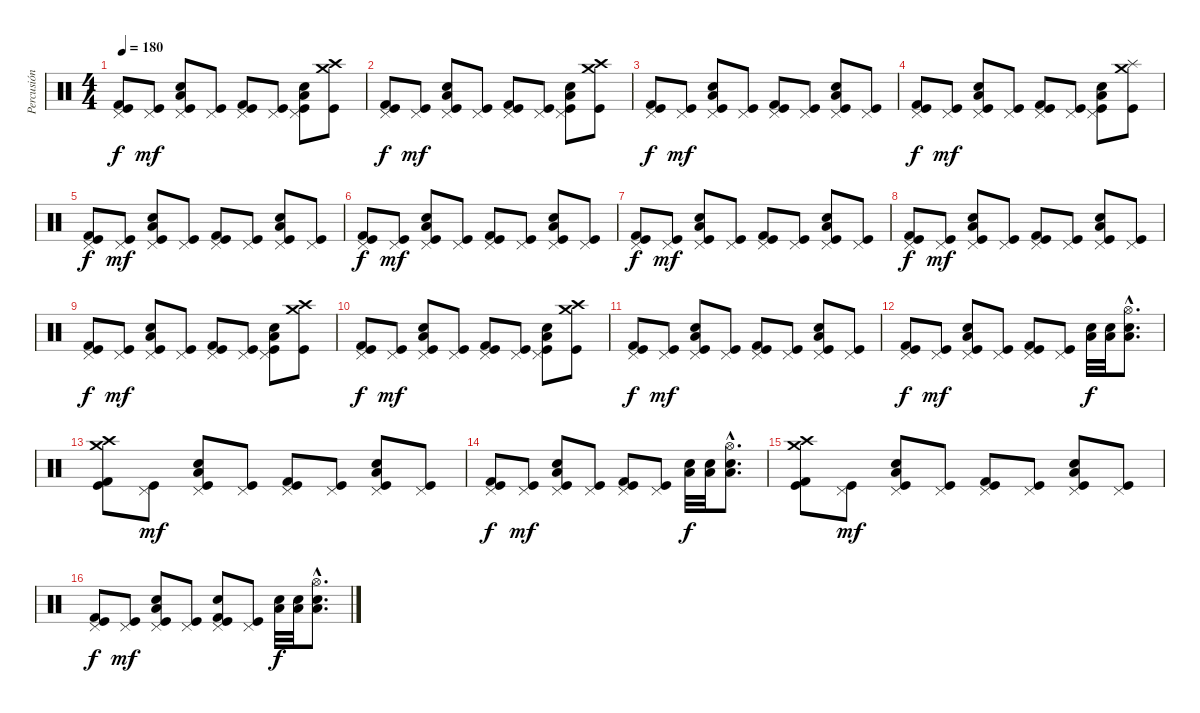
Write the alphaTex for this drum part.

\track ("Percusión" "Percusión") {instrument percussion}
\staff {score}
\articulation defaults
\ts (4 4)
\tempo 180
\clef neutral
\ks c
("Pedal Hi-Hat (hit)" "Kick (hit) 2" "Kick (hit)").8{dy f} ("Pedal Hi-Hat (hit)" "Kick (hit)").8{dy mf} ("Pedal Hi-Hat (hit)" "Electric Snare (hit)" "Low Tom (hit)" "Kick (hit)").8 ("Pedal Hi-Hat (hit)" "Kick (hit)").8 ("Pedal Hi-Hat (hit)" "Kick (hit) 2" "Kick (hit)").8 ("Pedal Hi-Hat (hit)" "Kick (hit)").8 ("Pedal Hi-Hat (hit)" "Electric Snare (hit)" "Low Tom (hit)" "Kick (hit)").8 ("Crash high (hit)" "Crash medium (hit)" "Kick (hit)").8 |
("Pedal Hi-Hat (hit)" "Kick (hit) 2" "Kick (hit)").8{dy f} ("Pedal Hi-Hat (hit)" "Kick (hit)").8{dy mf} ("Pedal Hi-Hat (hit)" "Electric Snare (hit)" "Low Tom (hit)" "Kick (hit)").8 ("Pedal Hi-Hat (hit)" "Kick (hit)").8 ("Pedal Hi-Hat (hit)" "Kick (hit) 2" "Kick (hit)").8 ("Pedal Hi-Hat (hit)" "Kick (hit)").8 ("Pedal Hi-Hat (hit)" "Electric Snare (hit)" "Low Tom (hit)" "Kick (hit)").8 ("Crash high (hit)" "Crash medium (hit)" "Kick (hit)").8 |
("Pedal Hi-Hat (hit)" "Kick (hit) 2" "Kick (hit)").8{dy f} ("Pedal Hi-Hat (hit)" "Kick (hit)").8{dy mf} ("Pedal Hi-Hat (hit)" "Electric Snare (hit)" "Low Tom (hit)" "Kick (hit)").8 ("Pedal Hi-Hat (hit)" "Kick (hit)").8 ("Pedal Hi-Hat (hit)" "Kick (hit) 2" "Kick (hit)").8 ("Pedal Hi-Hat (hit)" "Kick (hit)").8 ("Pedal Hi-Hat (hit)" "Electric Snare (hit)" "Low Tom (hit)" "Kick (hit)").8 ("Pedal Hi-Hat (hit)" "Kick (hit)").8 |
("Pedal Hi-Hat (hit)" "Kick (hit) 2" "Kick (hit)").8{dy f} ("Pedal Hi-Hat (hit)" "Kick (hit)").8{dy mf} ("Pedal Hi-Hat (hit)" "Electric Snare (hit)" "Low Tom (hit)" "Kick (hit)").8 ("Pedal Hi-Hat (hit)" "Kick (hit)").8 ("Pedal Hi-Hat (hit)" "Kick (hit) 2" "Kick (hit)").8 ("Pedal Hi-Hat (hit)" "Kick (hit)").8 ("Pedal Hi-Hat (hit)" "Electric Snare (hit)" "Low Tom (hit)" "Kick (hit)").8 ("Splash (hit)" "Crash medium (hit)" "Kick (hit)").8 |
("Pedal Hi-Hat (hit)" "Kick (hit) 2" "Kick (hit)").8{dy f} ("Pedal Hi-Hat (hit)" "Kick (hit)").8{dy mf} ("Pedal Hi-Hat (hit)" "Electric Snare (hit)" "Low Tom (hit)" "Kick (hit)").8 ("Pedal Hi-Hat (hit)" "Kick (hit)").8 ("Pedal Hi-Hat (hit)" "Kick (hit) 2" "Kick (hit)").8 ("Pedal Hi-Hat (hit)" "Kick (hit)").8 ("Pedal Hi-Hat (hit)" "Electric Snare (hit)" "Low Tom (hit)" "Kick (hit)").8 ("Pedal Hi-Hat (hit)" "Kick (hit)").8 |
("Pedal Hi-Hat (hit)" "Kick (hit) 2" "Kick (hit)").8{dy f} ("Pedal Hi-Hat (hit)" "Kick (hit)").8{dy mf} ("Pedal Hi-Hat (hit)" "Electric Snare (hit)" "Low Tom (hit)" "Kick (hit)").8 ("Pedal Hi-Hat (hit)" "Kick (hit)").8 ("Pedal Hi-Hat (hit)" "Kick (hit) 2" "Kick (hit)").8 ("Pedal Hi-Hat (hit)" "Kick (hit)").8 ("Pedal Hi-Hat (hit)" "Electric Snare (hit)" "Low Tom (hit)" "Kick (hit)").8 ("Pedal Hi-Hat (hit)" "Kick (hit)").8 |
("Pedal Hi-Hat (hit)" "Kick (hit) 2" "Kick (hit)").8{dy f} ("Pedal Hi-Hat (hit)" "Kick (hit)").8{dy mf} ("Pedal Hi-Hat (hit)" "Electric Snare (hit)" "Low Tom (hit)" "Kick (hit)").8 ("Pedal Hi-Hat (hit)" "Kick (hit)").8 ("Pedal Hi-Hat (hit)" "Kick (hit) 2" "Kick (hit)").8 ("Pedal Hi-Hat (hit)" "Kick (hit)").8 ("Pedal Hi-Hat (hit)" "Electric Snare (hit)" "Low Tom (hit)" "Kick (hit)").8 ("Pedal Hi-Hat (hit)" "Kick (hit)").8 |
("Pedal Hi-Hat (hit)" "Kick (hit) 2" "Kick (hit)").8{dy f} ("Pedal Hi-Hat (hit)" "Kick (hit)").8{dy mf} ("Pedal Hi-Hat (hit)" "Electric Snare (hit)" "Low Tom (hit)" "Kick (hit)").8 ("Pedal Hi-Hat (hit)" "Kick (hit)").8 ("Pedal Hi-Hat (hit)" "Kick (hit) 2" "Kick (hit)").8 ("Pedal Hi-Hat (hit)" "Kick (hit)").8 ("Pedal Hi-Hat (hit)" "Electric Snare (hit)" "Low Tom (hit)" "Kick (hit)").8 ("Pedal Hi-Hat (hit)" "Kick (hit)").8 |
("Pedal Hi-Hat (hit)" "Kick (hit) 2" "Kick (hit)").8{dy f} ("Pedal Hi-Hat (hit)" "Kick (hit)").8{dy mf} ("Pedal Hi-Hat (hit)" "Electric Snare (hit)" "Low Tom (hit)" "Kick (hit)").8 ("Pedal Hi-Hat (hit)" "Kick (hit)").8 ("Pedal Hi-Hat (hit)" "Kick (hit) 2" "Kick (hit)").8 ("Pedal Hi-Hat (hit)" "Kick (hit)").8 ("Pedal Hi-Hat (hit)" "Electric Snare (hit)" "Low Tom (hit)" "Kick (hit)").8 ("Crash high (hit)" "Crash medium (hit)" "Kick (hit)").8 |
("Pedal Hi-Hat (hit)" "Kick (hit) 2" "Kick (hit)").8{dy f} ("Pedal Hi-Hat (hit)" "Kick (hit)").8{dy mf} ("Pedal Hi-Hat (hit)" "Electric Snare (hit)" "Low Tom (hit)" "Kick (hit)").8 ("Pedal Hi-Hat (hit)" "Kick (hit)").8 ("Pedal Hi-Hat (hit)" "Kick (hit) 2" "Kick (hit)").8 ("Pedal Hi-Hat (hit)" "Kick (hit)").8 ("Pedal Hi-Hat (hit)" "Electric Snare (hit)" "Low Tom (hit)" "Kick (hit)").8 ("Crash high (hit)" "Crash medium (hit)" "Kick (hit)").8 |
("Pedal Hi-Hat (hit)" "Kick (hit) 2" "Kick (hit)").8{dy f} ("Pedal Hi-Hat (hit)" "Kick (hit)").8{dy mf} ("Pedal Hi-Hat (hit)" "Electric Snare (hit)" "Low Tom (hit)" "Kick (hit)").8 ("Pedal Hi-Hat (hit)" "Kick (hit)").8 ("Pedal Hi-Hat (hit)" "Kick (hit) 2" "Kick (hit)").8 ("Pedal Hi-Hat (hit)" "Kick (hit)").8 ("Pedal Hi-Hat (hit)" "Electric Snare (hit)" "Low Tom (hit)" "Kick (hit)").8 ("Pedal Hi-Hat (hit)" "Kick (hit)").8 |
("Pedal Hi-Hat (hit)" "Kick (hit) 2" "Kick (hit)").8{dy f} ("Pedal Hi-Hat (hit)" "Kick (hit)").8{dy mf} ("Pedal Hi-Hat (hit)" "Electric Snare (hit)" "Low Tom (hit)" "Kick (hit)").8 ("Pedal Hi-Hat (hit)" "Kick (hit)").8 ("Pedal Hi-Hat (hit)" "Kick (hit) 2" "Kick (hit)").8 ("Pedal Hi-Hat (hit)" "Kick (hit)").8 ("Electric Snare (hit)" "Low Tom (hit)").32{dy f} ("Electric Snare (hit)" "Low Tom (hit)").32 ("Hi-Hat (open)"{hac} "Electric Snare (hit)"{hac} "Low Tom (hit)"{hac}).8{d} |
("Crash high (hit)" "Crash medium (hit)" "Kick (hit) 2" "Kick (hit)").8 ("Pedal Hi-Hat (hit)" "Kick (hit)").8{dy mf} ("Pedal Hi-Hat (hit)" "Electric Snare (hit)" "Low Tom (hit)" "Kick (hit)").8 ("Pedal Hi-Hat (hit)" "Kick (hit)").8 ("Pedal Hi-Hat (hit)" "Kick (hit) 2" "Kick (hit)").8 ("Pedal Hi-Hat (hit)" "Kick (hit)").8 ("Pedal Hi-Hat (hit)" "Electric Snare (hit)" "Low Tom (hit)" "Kick (hit)").8 ("Pedal Hi-Hat (hit)" "Kick (hit)").8 |
("Pedal Hi-Hat (hit)" "Kick (hit) 2" "Kick (hit)").8{dy f} ("Pedal Hi-Hat (hit)" "Kick (hit)").8{dy mf} ("Pedal Hi-Hat (hit)" "Electric Snare (hit)" "Low Tom (hit)" "Kick (hit)").8 ("Pedal Hi-Hat (hit)" "Kick (hit)").8 ("Pedal Hi-Hat (hit)" "Kick (hit) 2" "Kick (hit)").8 ("Pedal Hi-Hat (hit)" "Kick (hit)").8 ("Electric Snare (hit)" "Low Tom (hit)").32{dy f} ("Electric Snare (hit)" "Low Tom (hit)").32 ("Hi-Hat (open)"{hac} "Electric Snare (hit)"{hac} "Low Tom (hit)"{hac}).8{d} |
("Crash high (hit)" "Crash medium (hit)" "Kick (hit) 2" "Kick (hit)").8 ("Pedal Hi-Hat (hit)" "Kick (hit)").8{dy mf} ("Pedal Hi-Hat (hit)" "Electric Snare (hit)" "Low Tom (hit)" "Kick (hit)").8 ("Pedal Hi-Hat (hit)" "Kick (hit)").8 ("Pedal Hi-Hat (hit)" "Kick (hit) 2" "Kick (hit)").8 ("Pedal Hi-Hat (hit)" "Kick (hit)").8 ("Pedal Hi-Hat (hit)" "Electric Snare (hit)" "Low Tom (hit)" "Kick (hit)").8 ("Pedal Hi-Hat (hit)" "Kick (hit)").8 |
("Pedal Hi-Hat (hit)" "Kick (hit) 2" "Kick (hit)").8{dy f} ("Pedal Hi-Hat (hit)" "Kick (hit)").8{dy mf} ("Pedal Hi-Hat (hit)" "Electric Snare (hit)" "Low Tom (hit)" "Kick (hit)").8 ("Pedal Hi-Hat (hit)" "Kick (hit)").8 ("Pedal Hi-Hat (hit)" "Electric Snare (hit)" "Kick (hit) 2" "Kick (hit)").8 ("Pedal Hi-Hat (hit)" "Kick (hit)").8 ("Electric Snare (hit)" "Low Tom (hit)").32{dy f} ("Electric Snare (hit)" "Low Tom (hit)").32 ("Hi-Hat (open)"{hac} "Electric Snare (hit)"{hac} "Low Tom (hit)"{hac}).8{d}
